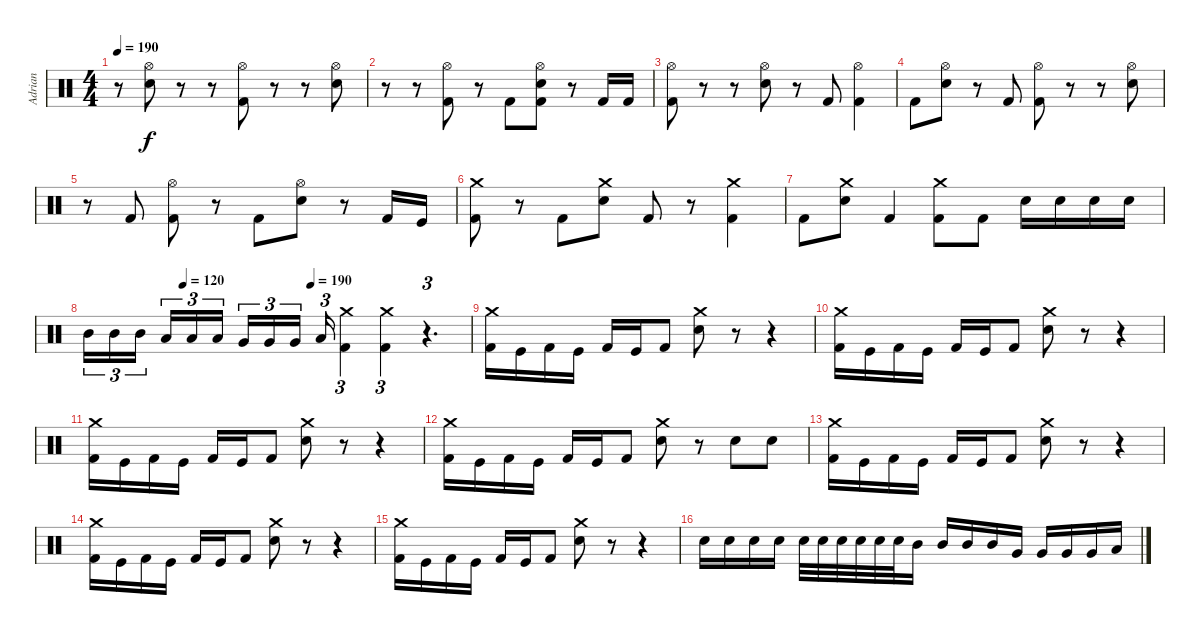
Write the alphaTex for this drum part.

\track ("Adrian" "Adrian") {instrument percussion}
\staff {score}
\articulation defaults
\ts (4 4)
\tempo 190
\clef neutral
\ks c
r.8{dy f} ("Hi-Hat (open)" "Electric Snare (hit)").8 r.8 r.8 ("Hi-Hat (open)" "Kick (hit) 2").8 r.8 r.8 ("Hi-Hat (open)" "Electric Snare (hit)").8 |
r.8 r.8 ("Hi-Hat (open)" "Kick (hit) 2").8 r.8 "Kick (hit) 2".8 ("Hi-Hat (open)" "Electric Snare (hit)" "Kick (hit) 2").8 r.8 "Kick (hit) 2".16 "Kick (hit) 2".16 |
("Hi-Hat (open)" "Kick (hit) 2").8 r.8 r.8 ("Hi-Hat (open)" "Electric Snare (hit)").8 r.8 "Kick (hit) 2".8 ("Hi-Hat (open)" "Kick (hit) 2").4 |
"Kick (hit) 2".8 ("Hi-Hat (open)" "Electric Snare (hit)").8 r.8 "Kick (hit) 2".8 ("Hi-Hat (open)" "Kick (hit) 2").8 r.8 r.8 ("Hi-Hat (open)" "Electric Snare (hit)").8 |
r.8 "Kick (hit) 2".8 ("Hi-Hat (open)" "Kick (hit) 2").8 r.8 "Kick (hit) 2".8 ("Hi-Hat (open)" "Electric Snare (hit)").8 r.8 "Kick (hit) 2".16 "Kick (hit)".16 |
("Crash medium (hit)" "Kick (hit) 2").8 r.8 "Kick (hit) 2".8 ("Crash medium (hit)" "Electric Snare (hit)").8 "Kick (hit) 2".8 r.8 ("Crash medium (hit)" "Kick (hit) 2").4 |
"Kick (hit) 2".8 ("Crash medium (hit)" "Electric Snare (hit)").8 "Kick (hit) 2".4 ("Crash medium (hit)" "Kick (hit) 2").8 "Kick (hit) 2".8 "Electric Snare (hit)".16 "Electric Snare (hit)".16 "Electric Snare (hit)".16 "Electric Snare (hit)".16 |
\tempo (120 0.25)
\tempo (190 0.5833333333333334)
"Mid Tom (hit)".16{tu (3 2)} "Mid Tom (hit)".16{tu (3 2)} "Mid Tom (hit)".16{tu (3 2)} "Low Tom (hit)".16{tu (3 2)} "Low Tom (hit)".16{tu (3 2)} "Low Tom (hit)".16{tu (3 2)} "Very Low Tom (hit)".16{tu (3 2)} "Very Low Tom (hit)".16{tu (3 2)} "Very Low Tom (hit)".16{tu (3 2)} "Low Floor Tom (hit)".16{tu (3 2)} ("Crash medium (hit)" "Kick (hit) 2").4{tu (3 2)} ("Crash medium (hit)" "Kick (hit) 2").4{tu (3 2)} r.4{d tu (3 2)} |
("Crash medium (hit)" "Kick (hit) 2").16 "Kick (hit)".16 "Kick (hit) 2".16 "Kick (hit)".16 "Kick (hit) 2".16 "Kick (hit)".16 "Kick (hit) 2".8 ("Crash medium (hit)" "Electric Snare (hit)").8 r.8 r.4 |
("Crash medium (hit)" "Kick (hit) 2").16 "Kick (hit)".16 "Kick (hit) 2".16 "Kick (hit)".16 "Kick (hit) 2".16 "Kick (hit)".16 "Kick (hit) 2".8 ("Crash medium (hit)" "Electric Snare (hit)").8 r.8 r.4 |
("Crash medium (hit)" "Kick (hit) 2").16 "Kick (hit)".16 "Kick (hit) 2".16 "Kick (hit)".16 "Kick (hit) 2".16 "Kick (hit)".16 "Kick (hit) 2".8 ("Crash medium (hit)" "Electric Snare (hit)").8 r.8 r.4 |
("Crash medium (hit)" "Kick (hit) 2").16 "Kick (hit)".16 "Kick (hit) 2".16 "Kick (hit)".16 "Kick (hit) 2".16 "Kick (hit)".16 "Kick (hit) 2".8 ("Crash medium (hit)" "Electric Snare (hit)").8 r.8 "Electric Snare (hit)".8 "Electric Snare (hit)".8 |
("Crash medium (hit)" "Kick (hit) 2").16 "Kick (hit)".16 "Kick (hit) 2".16 "Kick (hit)".16 "Kick (hit) 2".16 "Kick (hit)".16 "Kick (hit) 2".8 ("Crash medium (hit)" "Electric Snare (hit)").8 r.8 r.4 |
("Crash medium (hit)" "Kick (hit) 2").16 "Kick (hit)".16 "Kick (hit) 2".16 "Kick (hit)".16 "Kick (hit) 2".16 "Kick (hit)".16 "Kick (hit) 2".8 ("Crash medium (hit)" "Electric Snare (hit)").8 r.8 r.4 |
("Crash medium (hit)" "Kick (hit) 2").16 "Kick (hit)".16 "Kick (hit) 2".16 "Kick (hit)".16 "Kick (hit) 2".16 "Kick (hit)".16 "Kick (hit) 2".8 ("Crash medium (hit)" "Electric Snare (hit)").8 r.8 r.4 |
"Electric Snare (hit)".16 "Electric Snare (hit)".16 "Electric Snare (hit)".16 "Electric Snare (hit)".16 "Electric Snare (hit)".32 "Electric Snare (hit)".32 "Electric Snare (hit)".32 "Electric Snare (hit)".32 "Electric Snare (hit)".32 "Electric Snare (hit)".32 "Mid Tom (hit)".16 "Mid Tom (hit)".16 "Mid Tom (hit)".16 "Mid Tom (hit)".16 "Very Low Tom (hit)".16 "Very Low Tom (hit)".16 "Very Low Tom (hit)".16 "Very Low Tom (hit)".16 "Low Floor Tom (hit)".16
